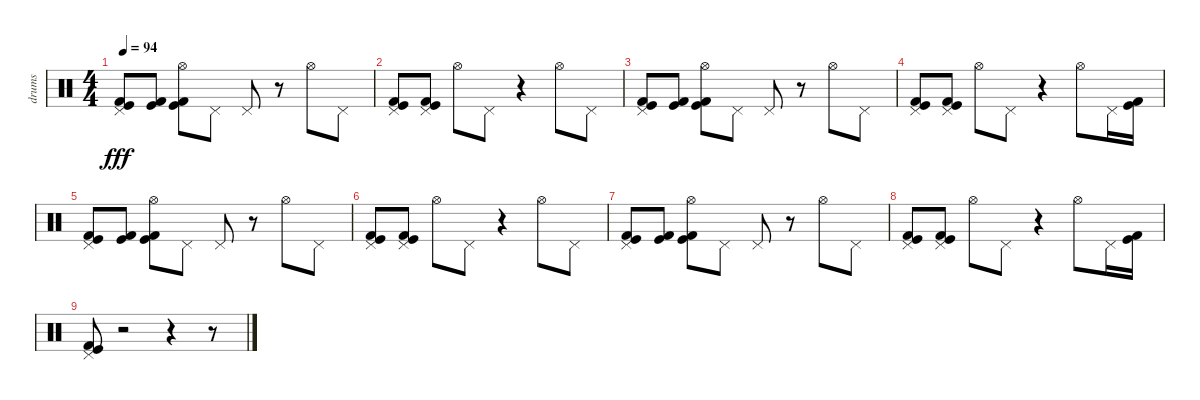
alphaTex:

\track ("drums" "drums") {instrument percussion}
\staff {score}
\articulation defaults
\ts (4 4)
\tempo 94
\clef neutral
\ks c
("Pedal Hi-Hat (hit)" "Kick (hit) 2" "Kick (hit)").8{dy fff} ("Kick (hit) 2" "Kick (hit)").8 ("Hi-Hat (open)" "Kick (hit) 2" "Kick (hit)").8 "Pedal Hi-Hat (hit)".8 "Pedal Hi-Hat (hit)".8 r.8 "Hi-Hat (open)".8 "Pedal Hi-Hat (hit)".8 |
("Kick (hit)" "Kick (hit) 2" "Pedal Hi-Hat (hit)").8 ("Kick (hit) 2" "Kick (hit)" "Pedal Hi-Hat (hit)").8 "Hi-Hat (open)".8 "Pedal Hi-Hat (hit)".8 r.4 "Hi-Hat (open)".8 "Pedal Hi-Hat (hit)".8 |
("Kick (hit)" "Kick (hit) 2" "Pedal Hi-Hat (hit)").8 ("Kick (hit) 2" "Kick (hit)").8 ("Hi-Hat (open)" "Kick (hit) 2" "Kick (hit)").8 "Pedal Hi-Hat (hit)".8 "Pedal Hi-Hat (hit)".8 r.8 "Hi-Hat (open)".8 "Pedal Hi-Hat (hit)".8 |
("Kick (hit)" "Kick (hit) 2" "Pedal Hi-Hat (hit)").8 ("Kick (hit) 2" "Kick (hit)" "Pedal Hi-Hat (hit)").8 "Hi-Hat (open)".8 "Pedal Hi-Hat (hit)".8 r.4 "Hi-Hat (open)".8 "Pedal Hi-Hat (hit)".16 ("Kick (hit) 2" "Kick (hit)").16 |
("Pedal Hi-Hat (hit)" "Kick (hit) 2" "Kick (hit)").8 ("Kick (hit) 2" "Kick (hit)").8 ("Hi-Hat (open)" "Kick (hit) 2" "Kick (hit)").8 "Pedal Hi-Hat (hit)".8 "Pedal Hi-Hat (hit)".8 r.8 "Hi-Hat (open)".8 "Pedal Hi-Hat (hit)".8 |
("Kick (hit)" "Kick (hit) 2" "Pedal Hi-Hat (hit)").8 ("Kick (hit) 2" "Kick (hit)" "Pedal Hi-Hat (hit)").8 "Hi-Hat (open)".8 "Pedal Hi-Hat (hit)".8 r.4 "Hi-Hat (open)".8 "Pedal Hi-Hat (hit)".8 |
("Kick (hit)" "Kick (hit) 2" "Pedal Hi-Hat (hit)").8 ("Kick (hit) 2" "Kick (hit)").8 ("Hi-Hat (open)" "Kick (hit) 2" "Kick (hit)").8 "Pedal Hi-Hat (hit)".8 "Pedal Hi-Hat (hit)".8 r.8 "Hi-Hat (open)".8 "Pedal Hi-Hat (hit)".8 |
("Kick (hit)" "Kick (hit) 2" "Pedal Hi-Hat (hit)").8 ("Kick (hit) 2" "Kick (hit)" "Pedal Hi-Hat (hit)").8 "Hi-Hat (open)".8 "Pedal Hi-Hat (hit)".8 r.4 "Hi-Hat (open)".8 "Pedal Hi-Hat (hit)".16 ("Kick (hit) 2" "Kick (hit)").16 |
("Pedal Hi-Hat (hit)" "Kick (hit) 2" "Kick (hit)").8 r.2 r.4 r.8
